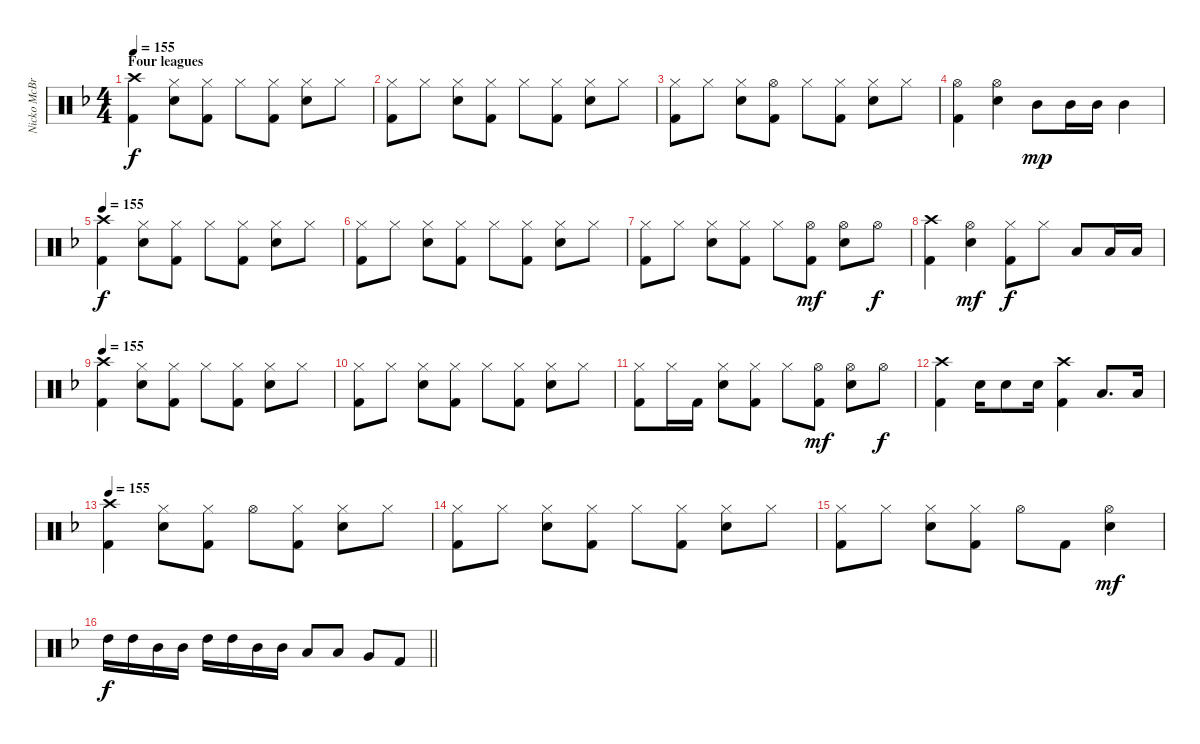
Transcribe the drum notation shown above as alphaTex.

\track ("Nicko McBrain" "Nicko McBr") {instrument percussion}
\staff {score}
\articulation defaults
\ts (4 4)
\section ("" "Four leagues")
\tempo 155
\clef neutral
\ks f
("Crash high (hit)" "Kick (hit) 2").4{dy f} ("Hi-Hat (closed)" "Electric Snare (hit)").8 ("Hi-Hat (closed)" "Kick (hit) 2").8 "Hi-Hat (closed)".8 ("Hi-Hat (closed)" "Kick (hit) 2").8 ("Hi-Hat (closed)" "Electric Snare (hit)").8 "Hi-Hat (closed)".8 |
("Hi-Hat (closed)" "Kick (hit) 2").8 "Hi-Hat (closed)".8 ("Hi-Hat (closed)" "Electric Snare (hit)").8 ("Hi-Hat (closed)" "Kick (hit) 2").8 "Hi-Hat (closed)".8 ("Hi-Hat (closed)" "Kick (hit) 2").8 ("Hi-Hat (closed)" "Electric Snare (hit)").8 "Hi-Hat (closed)".8 |
("Hi-Hat (closed)" "Kick (hit) 2").8 "Hi-Hat (closed)".8 ("Hi-Hat (closed)" "Electric Snare (hit)").8 ("Hi-Hat (open)" "Kick (hit) 2").8 "Hi-Hat (closed)".8 ("Hi-Hat (closed)" "Kick (hit) 2").8 ("Hi-Hat (closed)" "Electric Snare (hit)").8 "Hi-Hat (closed)".8 |
("Hi-Hat (open)" "Kick (hit) 2").4 ("Hi-Hat (open)" "Electric Snare (hit)").4 "Mid Tom (hit)".8{dy mp} "Mid Tom (hit)".16 "Mid Tom (hit)".16 "Mid Tom (hit)".4 |
\tempo 155
("Crash high (hit)" "Kick (hit) 2").4{dy f} ("Hi-Hat (closed)" "Electric Snare (hit)").8 ("Hi-Hat (closed)" "Kick (hit) 2").8 "Hi-Hat (closed)".8 ("Hi-Hat (closed)" "Kick (hit) 2").8 ("Hi-Hat (closed)" "Electric Snare (hit)").8 "Hi-Hat (closed)".8 |
("Hi-Hat (closed)" "Kick (hit) 2").8 "Hi-Hat (closed)".8 ("Hi-Hat (closed)" "Electric Snare (hit)").8 ("Hi-Hat (closed)" "Kick (hit) 2").8 "Hi-Hat (closed)".8 ("Hi-Hat (closed)" "Kick (hit) 2").8 ("Hi-Hat (closed)" "Electric Snare (hit)").8 "Hi-Hat (closed)".8 |
("Hi-Hat (closed)" "Kick (hit) 2").8 "Hi-Hat (closed)".8 ("Hi-Hat (closed)" "Electric Snare (hit)").8 ("Hi-Hat (closed)" "Kick (hit) 2").8 "Hi-Hat (closed)".8 ("Hi-Hat (open)" "Kick (hit) 2").8{dy mf} ("Hi-Hat (open)" "Electric Snare (hit)").8 "Hi-Hat (open)".8{dy f} |
("Crash high (hit)" "Kick (hit) 2").4 ("Hi-Hat (open)" "Electric Snare (hit)").4{dy mf} ("Hi-Hat (closed)" "Kick (hit) 2").8{dy f} "Hi-Hat (closed)".8 "Low Tom (hit)".8 "Low Tom (hit)".16 "Low Tom (hit)".16 |
\tempo 155
("Crash high (hit)" "Kick (hit) 2").4 ("Hi-Hat (closed)" "Electric Snare (hit)").8 ("Hi-Hat (closed)" "Kick (hit) 2").8 "Hi-Hat (closed)".8 ("Hi-Hat (closed)" "Kick (hit) 2").8 ("Hi-Hat (closed)" "Electric Snare (hit)").8 "Hi-Hat (closed)".8 |
("Hi-Hat (closed)" "Kick (hit) 2").8 "Hi-Hat (closed)".8 ("Hi-Hat (closed)" "Electric Snare (hit)").8 ("Hi-Hat (closed)" "Kick (hit) 2").8 "Hi-Hat (closed)".8 ("Hi-Hat (closed)" "Kick (hit) 2").8 ("Hi-Hat (closed)" "Electric Snare (hit)").8 "Hi-Hat (closed)".8 |
("Hi-Hat (closed)" "Kick (hit) 2").8 "Hi-Hat (closed)".16 "Kick (hit) 2".16 ("Hi-Hat (closed)" "Electric Snare (hit)").8 ("Hi-Hat (closed)" "Kick (hit) 2").8 "Hi-Hat (closed)".8 ("Hi-Hat (open)" "Kick (hit) 2").8{dy mf} ("Hi-Hat (open)" "Electric Snare (hit)").8 "Hi-Hat (open)".8{dy f} |
("Crash high (hit)" "Kick (hit) 2").4 "Electric Snare (hit)".16 "Electric Snare (hit)".8 "Electric Snare (hit)".16 ("Crash high (hit)" "Kick (hit) 2").4 "Low Tom (hit)".8{d} "Low Tom (hit)".16 |
\tempo 155
("Crash high (hit)" "Kick (hit) 2").4 ("Hi-Hat (closed)" "Electric Snare (hit)").8 ("Hi-Hat (closed)" "Kick (hit) 2").8 "Hi-Hat (open)".8 ("Hi-Hat (closed)" "Kick (hit) 2").8 ("Hi-Hat (closed)" "Electric Snare (hit)").8 "Hi-Hat (closed)".8 |
("Hi-Hat (closed)" "Kick (hit) 2").8 "Hi-Hat (closed)".8 ("Hi-Hat (closed)" "Electric Snare (hit)").8 ("Hi-Hat (closed)" "Kick (hit) 2").8 "Hi-Hat (closed)".8 ("Hi-Hat (closed)" "Kick (hit) 2").8 ("Hi-Hat (closed)" "Electric Snare (hit)").8 "Hi-Hat (closed)".8 |
("Hi-Hat (closed)" "Kick (hit) 2").8 "Hi-Hat (closed)".8 ("Hi-Hat (closed)" "Electric Snare (hit)").8 ("Hi-Hat (closed)" "Kick (hit) 2").8 "Hi-Hat (open)".8 "Kick (hit) 2".8 ("Hi-Hat (open)" "Electric Snare (hit)").4{dy mf} |
\barLineRight lightlight "High Tom (hit)".16{dy f} "High Tom (hit)".16 "Mid Tom (hit)".16 "Mid Tom (hit)".16 "High Tom (hit)".16 "High Tom (hit)".16 "Mid Tom (hit)".16 "Mid Tom (hit)".16 "Low Tom (hit)".8 "Low Tom (hit)".8 "Very Low Tom (hit)".8 "Kick (hit) 2".8
